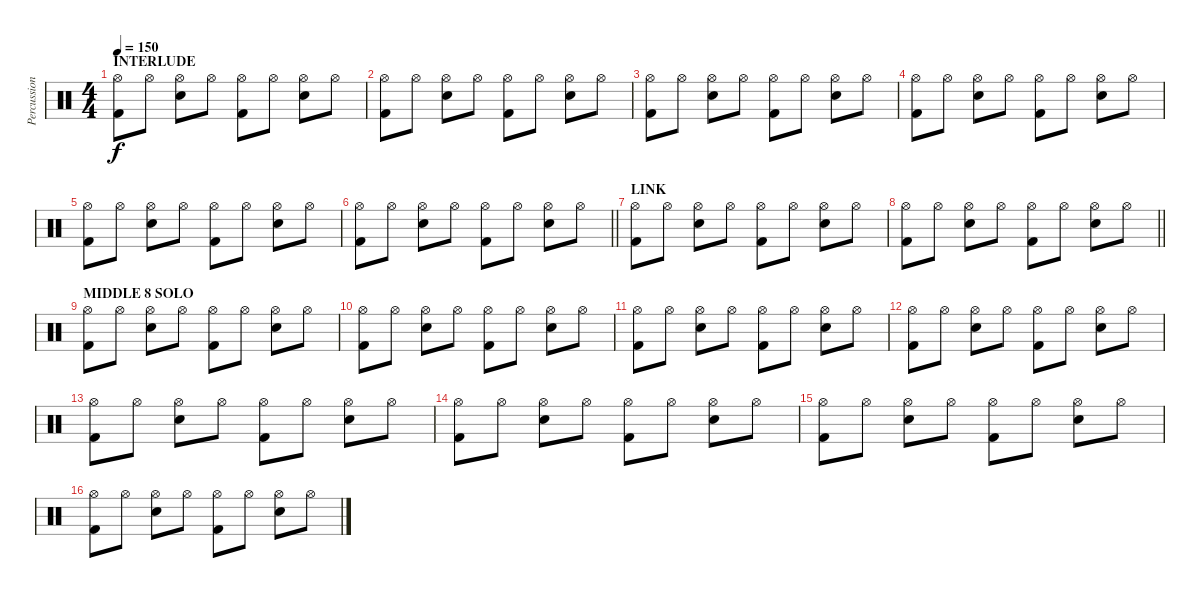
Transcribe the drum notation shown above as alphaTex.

\track ("Percussion" "Percussion") {solo instrument percussion}
\staff {score}
\articulation defaults
\ts (4 4)
\section ("" "INTERLUDE")
\tempo 150
\clef neutral
\ks c
("Hi-Hat (open)" "Kick (hit) 2").8{dy f} "Hi-Hat (open)".8 ("Hi-Hat (open)" "Snare (hit) 2").8 "Hi-Hat (open)".8 ("Hi-Hat (open)" "Kick (hit) 2").8 "Hi-Hat (open)".8 ("Hi-Hat (open)" "Snare (hit) 2").8 "Hi-Hat (open)".8 |
("Hi-Hat (open)" "Kick (hit) 2").8 "Hi-Hat (open)".8 ("Hi-Hat (open)" "Snare (hit) 2").8 "Hi-Hat (open)".8 ("Hi-Hat (open)" "Kick (hit) 2").8 "Hi-Hat (open)".8 ("Hi-Hat (open)" "Snare (hit) 2").8 "Hi-Hat (open)".8 |
("Hi-Hat (open)" "Kick (hit) 2").8 "Hi-Hat (open)".8 ("Hi-Hat (open)" "Snare (hit) 2").8 "Hi-Hat (open)".8 ("Hi-Hat (open)" "Kick (hit) 2").8 "Hi-Hat (open)".8 ("Hi-Hat (open)" "Snare (hit) 2").8 "Hi-Hat (open)".8 |
("Hi-Hat (open)" "Kick (hit) 2").8 "Hi-Hat (open)".8 ("Hi-Hat (open)" "Snare (hit) 2").8 "Hi-Hat (open)".8 ("Hi-Hat (open)" "Kick (hit) 2").8 "Hi-Hat (open)".8 ("Hi-Hat (open)" "Snare (hit) 2").8 "Hi-Hat (open)".8 |
("Hi-Hat (open)" "Kick (hit) 2").8 "Hi-Hat (open)".8 ("Hi-Hat (open)" "Snare (hit) 2").8 "Hi-Hat (open)".8 ("Hi-Hat (open)" "Kick (hit) 2").8 "Hi-Hat (open)".8 ("Hi-Hat (open)" "Snare (hit) 2").8 "Hi-Hat (open)".8 |
\barLineRight lightlight
("Hi-Hat (open)" "Kick (hit) 2").8 "Hi-Hat (open)".8 ("Hi-Hat (open)" "Snare (hit) 2").8 "Hi-Hat (open)".8 ("Hi-Hat (open)" "Kick (hit) 2").8 "Hi-Hat (open)".8 ("Hi-Hat (open)" "Snare (hit) 2").8 "Hi-Hat (open)".8 |
\section ("" "LINK")
("Hi-Hat (open)" "Kick (hit) 2").8 "Hi-Hat (open)".8 ("Hi-Hat (open)" "Snare (hit) 2").8 "Hi-Hat (open)".8 ("Hi-Hat (open)" "Kick (hit) 2").8 "Hi-Hat (open)".8 ("Hi-Hat (open)" "Snare (hit) 2").8 "Hi-Hat (open)".8 |
\barLineRight lightlight
("Hi-Hat (open)" "Kick (hit) 2").8 "Hi-Hat (open)".8 ("Hi-Hat (open)" "Snare (hit) 2").8 "Hi-Hat (open)".8 ("Hi-Hat (open)" "Kick (hit) 2").8 "Hi-Hat (open)".8 ("Hi-Hat (open)" "Snare (hit) 2").8 "Hi-Hat (open)".8 |
\section ("" "MIDDLE 8 SOLO")
("Hi-Hat (open)" "Kick (hit) 2").8 "Hi-Hat (open)".8 ("Hi-Hat (open)" "Snare (hit) 2").8 "Hi-Hat (open)".8 ("Hi-Hat (open)" "Kick (hit) 2").8 "Hi-Hat (open)".8 ("Hi-Hat (open)" "Snare (hit) 2").8 "Hi-Hat (open)".8 |
("Hi-Hat (open)" "Kick (hit) 2").8 "Hi-Hat (open)".8 ("Hi-Hat (open)" "Snare (hit) 2").8 "Hi-Hat (open)".8 ("Hi-Hat (open)" "Kick (hit) 2").8 "Hi-Hat (open)".8 ("Hi-Hat (open)" "Snare (hit) 2").8 "Hi-Hat (open)".8 |
("Hi-Hat (open)" "Kick (hit) 2").8 "Hi-Hat (open)".8 ("Hi-Hat (open)" "Snare (hit) 2").8 "Hi-Hat (open)".8 ("Hi-Hat (open)" "Kick (hit) 2").8 "Hi-Hat (open)".8 ("Hi-Hat (open)" "Snare (hit) 2").8 "Hi-Hat (open)".8 |
("Hi-Hat (open)" "Kick (hit) 2").8 "Hi-Hat (open)".8 ("Hi-Hat (open)" "Snare (hit) 2").8 "Hi-Hat (open)".8 ("Hi-Hat (open)" "Kick (hit) 2").8 "Hi-Hat (open)".8 ("Hi-Hat (open)" "Snare (hit) 2").8 "Hi-Hat (open)".8 |
("Hi-Hat (open)" "Kick (hit) 2").8 "Hi-Hat (open)".8 ("Hi-Hat (open)" "Snare (hit) 2").8 "Hi-Hat (open)".8 ("Hi-Hat (open)" "Kick (hit) 2").8 "Hi-Hat (open)".8 ("Hi-Hat (open)" "Snare (hit) 2").8 "Hi-Hat (open)".8 |
("Hi-Hat (open)" "Kick (hit) 2").8 "Hi-Hat (open)".8 ("Hi-Hat (open)" "Snare (hit) 2").8 "Hi-Hat (open)".8 ("Hi-Hat (open)" "Kick (hit) 2").8 "Hi-Hat (open)".8 ("Hi-Hat (open)" "Snare (hit) 2").8 "Hi-Hat (open)".8 |
("Hi-Hat (open)" "Kick (hit) 2").8 "Hi-Hat (open)".8 ("Hi-Hat (open)" "Snare (hit) 2").8 "Hi-Hat (open)".8 ("Hi-Hat (open)" "Kick (hit) 2").8 "Hi-Hat (open)".8 ("Hi-Hat (open)" "Snare (hit) 2").8 "Hi-Hat (open)".8 |
("Hi-Hat (open)" "Kick (hit) 2").8 "Hi-Hat (open)".8 ("Hi-Hat (open)" "Snare (hit) 2").8 "Hi-Hat (open)".8 ("Hi-Hat (open)" "Kick (hit) 2").8 "Hi-Hat (open)".8 ("Hi-Hat (open)" "Snare (hit) 2").8 "Hi-Hat (open)".8
